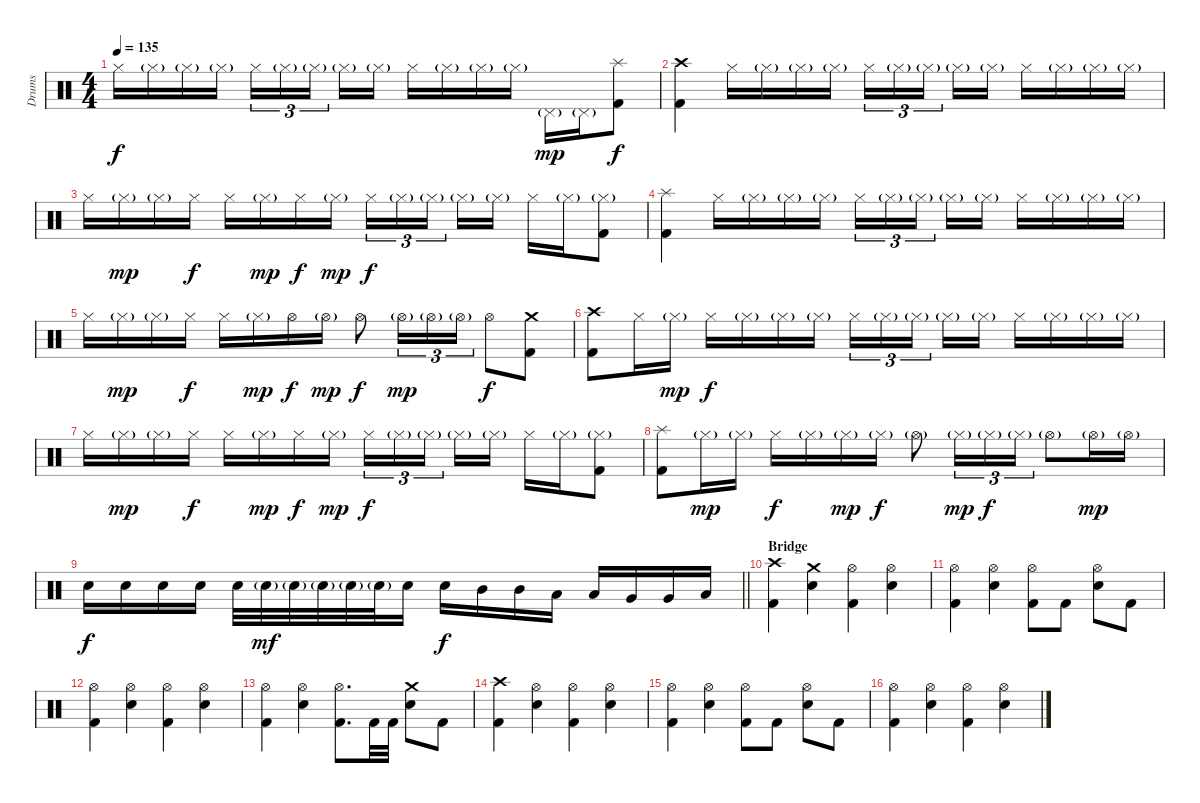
\track ("Drums" "Drums") {instrument percussion}
\staff {score}
\articulation defaults
\ts (4 4)
\tempo 135
\clef neutral
\ks c "Hi-Hat (closed)".16{dy f} "Hi-Hat (closed)"{g}.16 "Hi-Hat (closed)"{g}.16 "Hi-Hat (closed)"{g}.16 "Hi-Hat (closed)".16{tu (3 2)} "Hi-Hat (closed)"{g}.16{tu (3 2)} "Hi-Hat (closed)"{g}.16{tu (3 2) beam splitsecondary} "Hi-Hat (closed)"{g}.16 "Hi-Hat (closed)"{g}.16 "Hi-Hat (closed)".16 "Hi-Hat (closed)"{g}.16 "Hi-Hat (closed)"{g}.16 "Hi-Hat (closed)"{g}.16 "Pedal Hi-Hat (hit)"{g}.16{dy mp} "Pedal Hi-Hat (hit)"{g}.16
("Splash (hit)" "Kick (hit) 2").8{dy f} |
("Crash high (hit)" "Kick (hit) 2").4 "Hi-Hat (closed)".16 "Hi-Hat (closed)"{g}.16 "Hi-Hat (closed)"{g}.16 "Hi-Hat (closed)"{g}.16 "Hi-Hat (closed)".16{tu (3 2)} "Hi-Hat (closed)"{g}.16{tu (3 2)} "Hi-Hat (closed)"{g}.16{tu (3 2) beam splitsecondary} "Hi-Hat (closed)"{g}.16 "Hi-Hat (closed)"{g}.16 "Hi-Hat (closed)".16 "Hi-Hat (closed)"{g}.16 "Hi-Hat (closed)"{g}.16 "Hi-Hat (closed)"{g}.16 |
"Hi-Hat (closed)".16 "Hi-Hat (closed)"{g}.16{dy mp} "Hi-Hat (closed)"{g}.16 "Hi-Hat (closed)".16{dy f} "Hi-Hat (closed)".16 "Hi-Hat (closed)"{g}.16{dy mp} "Hi-Hat (closed)".16{dy f} "Hi-Hat (closed)"{g}.16{dy mp} "Hi-Hat (closed)".16{tu (3 2) dy f} "Hi-Hat (closed)"{g}.16{tu (3 2)} "Hi-Hat (closed)"{g}.16{tu (3 2) beam splitsecondary} "Hi-Hat (closed)"{g}.16 "Hi-Hat (closed)"{g}.16 "Hi-Hat (closed)".16 "Hi-Hat (closed)"{g}.16 ("Hi-Hat (closed)"{g} "Kick (hit) 2").8 |
("Splash (hit)" "Kick (hit) 2").4 "Hi-Hat (closed)".16 "Hi-Hat (closed)"{g}.16 "Hi-Hat (closed)"{g}.16 "Hi-Hat (closed)"{g}.16 "Hi-Hat (closed)".16{tu (3 2)} "Hi-Hat (closed)"{g}.16{tu (3 2)} "Hi-Hat (closed)"{g}.16{tu (3 2) beam splitsecondary} "Hi-Hat (closed)"{g}.16 "Hi-Hat (closed)"{g}.16 "Hi-Hat (closed)".16 "Hi-Hat (closed)"{g}.16 "Hi-Hat (closed)"{g}.16 "Hi-Hat (closed)"{g}.16 |
"Hi-Hat (closed)".16 "Hi-Hat (closed)"{g}.16{dy mp} "Hi-Hat (closed)"{g}.16 "Hi-Hat (closed)".16{dy f} "Hi-Hat (closed)".16 "Hi-Hat (closed)"{g}.16{dy mp} "Hi-Hat (open)".16{dy f} "Hi-Hat (open)"{g}.16{dy mp} "Hi-Hat (open)".8{dy f} "Hi-Hat (open)"{g}.16{tu (3 2) dy mp} "Hi-Hat (open)"{g}.16{tu (3 2)} "Hi-Hat (open)"{g}.16{tu (3 2)} "Hi-Hat (open)".8{dy f} ("Crash medium (hit)" "Kick (hit) 2").8 |
("Crash high (hit)" "Kick (hit) 2").8 "Hi-Hat (closed)".16 "Hi-Hat (closed)"{g}.16{dy mp} "Hi-Hat (closed)".16{dy f} "Hi-Hat (closed)"{g}.16 "Hi-Hat (closed)"{g}.16 "Hi-Hat (closed)"{g}.16 "Hi-Hat (closed)".16{tu (3 2)} "Hi-Hat (closed)"{g}.16{tu (3 2)} "Hi-Hat (closed)"{g}.16{tu (3 2) beam splitsecondary} "Hi-Hat (closed)"{g}.16 "Hi-Hat (closed)"{g}.16 "Hi-Hat (closed)".16 "Hi-Hat (closed)"{g}.16 "Hi-Hat (closed)"{g}.16 "Hi-Hat (closed)"{g}.16 |
"Hi-Hat (closed)".16 "Hi-Hat (closed)"{g}.16{dy mp} "Hi-Hat (closed)"{g}.16 "Hi-Hat (closed)".16{dy f} "Hi-Hat (closed)".16 "Hi-Hat (closed)"{g}.16{dy mp} "Hi-Hat (closed)".16{dy f} "Hi-Hat (closed)"{g}.16{dy mp} "Hi-Hat (closed)".16{tu (3 2) dy f} "Hi-Hat (closed)"{g}.16{tu (3 2)} "Hi-Hat (closed)"{g}.16{tu (3 2) beam splitsecondary} "Hi-Hat (closed)"{g}.16 "Hi-Hat (closed)"{g}.16 "Hi-Hat (closed)".16 "Hi-Hat (closed)"{g}.16 ("Hi-Hat (closed)"{g} "Kick (hit) 2").8 |
("Splash (hit)" "Kick (hit) 2").8 "Hi-Hat (closed)"{g}.16{dy mp} "Hi-Hat (closed)"{g}.16 "Hi-Hat (closed)".16{dy f} "Hi-Hat (closed)"{g}.16 "Hi-Hat (closed)"{g}.16{dy mp} "Hi-Hat (closed)"{g}.16{dy f} "Hi-Hat (open)"{g}.8 "Hi-Hat (closed)"{g}.16{tu (3 2) dy mp} "Hi-Hat (closed)"{g}.16{tu (3 2) dy f} "Hi-Hat (closed)"{g}.16{tu (3 2)} "Hi-Hat (open)"{g}.8 "Hi-Hat (open)"{g}.16{dy mp} "Hi-Hat (open)"{g}.16 |
\barLineRight lightlight "Electric Snare (hit)".16{dy f} "Electric Snare (hit)".16 "Electric Snare (hit)".16 "Electric Snare (hit)".16 "Electric Snare (hit)".32 "Electric Snare (hit)"{g}.32{dy mf} "Electric Snare (hit)"{g}.32 "Electric Snare (hit)"{g}.32 "Electric Snare (hit)"{g}.32 "Electric Snare (hit)"{g}.32 "Electric Snare (hit)".16 "Electric Snare (hit)".16{dy f} "Mid Tom (hit)".16 "Mid Tom (hit)".16 "Low Tom (hit)".16 "Low Tom (hit)".16 "Very Low Tom (hit)".16 "Very Low Tom (hit)".16 "Low Floor Tom (hit)".16
|
\section ("" "Bridge")
("Crash high (hit)" "Kick (hit) 2").4 ("Crash medium (hit)" "Electric Snare (hit)").4 ("Hi-Hat (open)" "Kick (hit) 2").4 ("Hi-Hat (open)" "Electric Snare (hit)").4 |
("Hi-Hat (open)" "Kick (hit) 2").4 ("Hi-Hat (open)" "Electric Snare (hit)").4 ("Hi-Hat (open)" "Kick (hit) 2").8 "Kick (hit) 2".8 ("Hi-Hat (open)" "Electric Snare (hit)").8 "Kick (hit) 2".8 |
("Hi-Hat (open)" "Kick (hit) 2").4 ("Hi-Hat (open)" "Electric Snare (hit)").4 ("Hi-Hat (open)" "Kick (hit) 2").4 ("Hi-Hat (open)" "Electric Snare (hit)").4 |
("Hi-Hat (open)" "Kick (hit) 2").4 ("Hi-Hat (open)" "Electric Snare (hit)").4 ("Hi-Hat (open)" "Kick (hit) 2").8{d} "Kick (hit) 2".32 "Kick (hit) 2".32 ("Crash medium (hit)" "Electric Snare (hit)").8 "Kick (hit) 2".8 |
("Crash high (hit)" "Kick (hit) 2").4 ("Hi-Hat (open)" "Electric Snare (hit)").4 ("Hi-Hat (open)" "Kick (hit) 2").4 ("Hi-Hat (open)" "Electric Snare (hit)").4 |
("Hi-Hat (open)" "Kick (hit) 2").4 ("Hi-Hat (open)" "Electric Snare (hit)").4 ("Hi-Hat (open)" "Kick (hit) 2").8 "Kick (hit) 2".8 ("Hi-Hat (open)" "Electric Snare (hit)").8 "Kick (hit) 2".8 |
("Hi-Hat (open)" "Kick (hit) 2").4 ("Hi-Hat (open)" "Electric Snare (hit)").4 ("Hi-Hat (open)" "Kick (hit) 2").4 ("Hi-Hat (open)" "Electric Snare (hit)").4
